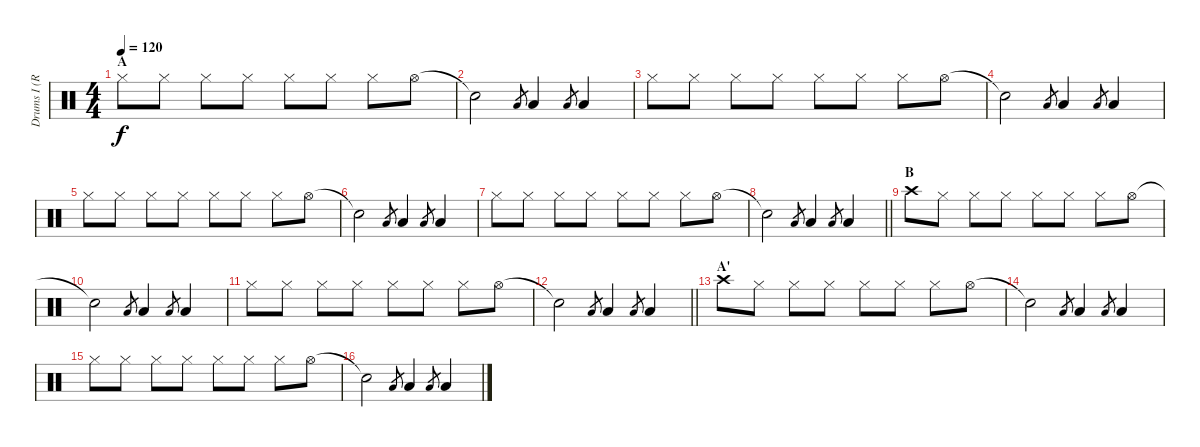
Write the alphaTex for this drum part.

\track ("Drums I (Ruka)" "Drums I (R") {instrument percussion}
\staff {score}
\articulation defaults
\ts (4 4)
\section ("" "A")
\tempo 120
\clef neutral
\ks c "Hi-Hat (closed)".8{dy f} "Hi-Hat (closed)".8 "Hi-Hat (closed)".8 "Hi-Hat (closed)".8 "Hi-Hat (closed)".8 "Hi-Hat (closed)".8 "Hi-Hat (closed)".8 "Hi-Hat (open)".8
|
"Snare (hit)"{t}.2 "Low Tom (hit)".8{gr} "Low Tom (hit)".4 "Low Tom (hit)".8{gr} "Low Tom (hit)".4 |
"Hi-Hat (closed)".8 "Hi-Hat (closed)".8 "Hi-Hat (closed)".8 "Hi-Hat (closed)".8 "Hi-Hat (closed)".8 "Hi-Hat (closed)".8 "Hi-Hat (closed)".8 "Hi-Hat (open)".8 |
"Snare (hit)"{t}.2 "Low Tom (hit)".8{gr} "Low Tom (hit)".4 "Low Tom (hit)".8{gr} "Low Tom (hit)".4 |
"Hi-Hat (closed)".8 "Hi-Hat (closed)".8 "Hi-Hat (closed)".8 "Hi-Hat (closed)".8 "Hi-Hat (closed)".8 "Hi-Hat (closed)".8 "Hi-Hat (closed)".8 "Hi-Hat (open)".8 |
"Snare (hit)"{t}.2 "Low Tom (hit)".8{gr} "Low Tom (hit)".4 "Low Tom (hit)".8{gr} "Low Tom (hit)".4 |
"Hi-Hat (closed)".8 "Hi-Hat (closed)".8 "Hi-Hat (closed)".8 "Hi-Hat (closed)".8 "Hi-Hat (closed)".8 "Hi-Hat (closed)".8 "Hi-Hat (closed)".8 "Hi-Hat (open)".8 |
\barLineRight lightlight "Snare (hit)"{t}.2 "Low Tom (hit)".8{gr} "Low Tom (hit)".4 "Low Tom (hit)".8{gr} "Low Tom (hit)".4
|
\section ("" "B")
"Crash high (hit)".8 "Hi-Hat (closed)".8 "Hi-Hat (closed)".8 "Hi-Hat (closed)".8 "Hi-Hat (closed)".8 "Hi-Hat (closed)".8 "Hi-Hat (closed)".8 "Hi-Hat (open)".8 |
"Snare (hit)"{t}.2 "Low Tom (hit)".8{gr} "Low Tom (hit)".4 "Low Tom (hit)".8{gr} "Low Tom (hit)".4 |
"Hi-Hat (closed)".8 "Hi-Hat (closed)".8 "Hi-Hat (closed)".8 "Hi-Hat (closed)".8 "Hi-Hat (closed)".8 "Hi-Hat (closed)".8 "Hi-Hat (closed)".8 "Hi-Hat (open)".8 |
\barLineRight lightlight "Snare (hit)"{t}.2 "Low Tom (hit)".8{gr} "Low Tom (hit)".4 "Low Tom (hit)".8{gr} "Low Tom (hit)".4
|
\section ("" "A'")
"Crash high (hit)".8 "Hi-Hat (closed)".8 "Hi-Hat (closed)".8 "Hi-Hat (closed)".8 "Hi-Hat (closed)".8 "Hi-Hat (closed)".8 "Hi-Hat (closed)".8 "Hi-Hat (open)".8 |
"Snare (hit)"{t}.2 "Low Tom (hit)".8{gr} "Low Tom (hit)".4 "Low Tom (hit)".8{gr} "Low Tom (hit)".4 |
"Hi-Hat (closed)".8 "Hi-Hat (closed)".8 "Hi-Hat (closed)".8 "Hi-Hat (closed)".8 "Hi-Hat (closed)".8 "Hi-Hat (closed)".8 "Hi-Hat (closed)".8 "Hi-Hat (open)".8 |
"Snare (hit)"{t}.2 "Low Tom (hit)".8{gr} "Low Tom (hit)".4 "Low Tom (hit)".8{gr} "Low Tom (hit)".4
